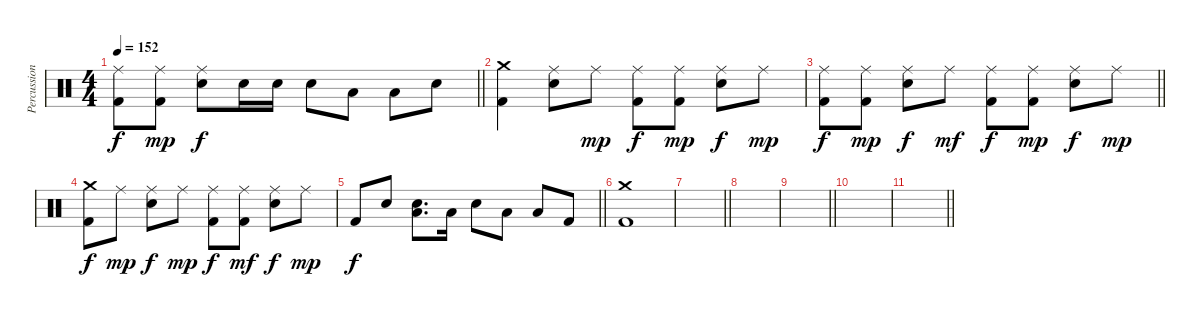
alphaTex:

\track ("Percussion" "Percussion") {instrument percussion}
\staff {score}
\articulation defaults
\ts (4 4)
\tempo 152
\clef neutral
\barLineRight lightlight
\ks c
("Ride (middle)" "Kick (hit) 2").8{dy f} ("Ride (middle)" "Kick (hit) 2").8{dy mp} ("Ride (middle)" "Electric Snare (hit)").8{dy f} "Electric Snare (hit)".16 "Electric Snare (hit)".16 "Electric Snare (hit)".8 "Low Tom (hit)".8 "Low Tom (hit)".8 "Electric Snare (hit)".8 |
("Crash medium (hit)" "Kick (hit) 2").4 ("Ride (middle)" "Electric Snare (hit)").8 "Ride (middle)".8{dy mp} ("Ride (middle)" "Kick (hit) 2").8{dy f} ("Ride (middle)" "Kick (hit) 2").8{dy mp} ("Ride (middle)" "Electric Snare (hit)").8{dy f} "Ride (middle)".8{dy mp} |
\barLineRight lightlight
("Ride (middle)" "Kick (hit) 2").8{dy f} ("Ride (middle)" "Kick (hit) 2").8{dy mp} ("Ride (middle)" "Electric Snare (hit)").8{dy f} "Ride (middle)".8{dy mf} ("Ride (middle)" "Kick (hit) 2").8{dy f} ("Ride (middle)" "Kick (hit) 2").8{dy mp} ("Ride (middle)" "Electric Snare (hit)").8{dy f} "Ride (middle)".8{dy mp} |
("Crash medium (hit)" "Kick (hit) 2").8{dy f} "Ride (middle)".8{dy mp} ("Ride (middle)" "Electric Snare (hit)").8{dy f} "Ride (middle)".8{dy mp} ("Ride (middle)" "Kick (hit) 2").8{dy f} ("Ride (middle)" "Kick (hit) 2").8{dy mf} ("Ride (middle)" "Electric Snare (hit)").8{dy f} "Ride (middle)".8{dy mp} |
\barLineRight lightlight "Kick (hit) 2".8{dy f} "Electric Snare (hit)".8
("Low Tom (hit)" "Electric Snare (hit)").8{d} "Low Tom (hit)".16 "Electric Snare (hit)".8 "Low Tom (hit)".8 "Low Tom (hit)".8 "Kick (hit) 2".8 |
("Crash medium (hit)" "Kick (hit) 2").1 |
\barLineRight lightlight
|
|
\barLineRight lightlight
|
|
\barLineRight lightlight
